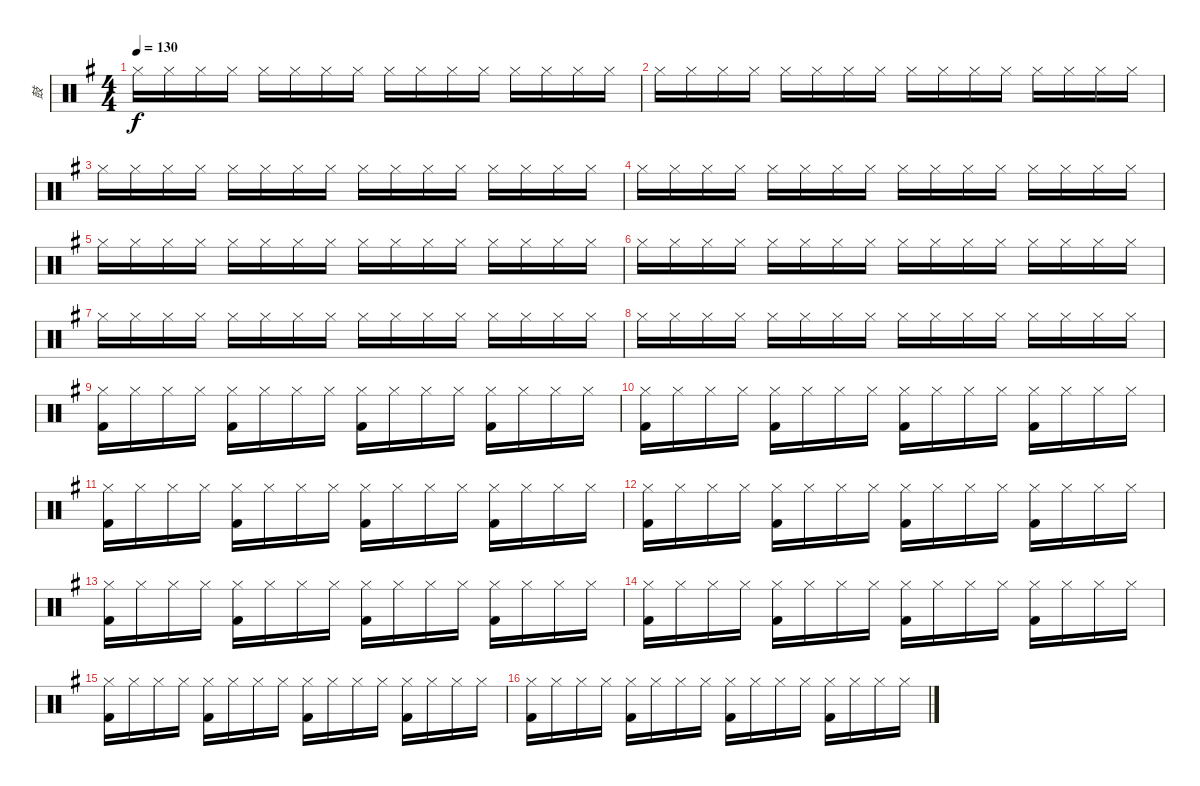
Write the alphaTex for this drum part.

\track ("鼓" "鼓") {instrument percussion}
\staff {score}
\articulation defaults
\ts (4 4)
\tempo 130
\clef neutral
\ks g "Hi-Hat (closed)".16{dy f} "Hi-Hat (closed)".16 "Hi-Hat (closed)".16 "Hi-Hat (closed)".16 "Hi-Hat (closed)".16 "Hi-Hat (closed)".16 "Hi-Hat (closed)".16 "Hi-Hat (closed)".16 "Hi-Hat (closed)".16 "Hi-Hat (closed)".16 "Hi-Hat (closed)".16 "Hi-Hat (closed)".16 "Hi-Hat (closed)".16 "Hi-Hat (closed)".16 "Hi-Hat (closed)".16 "Hi-Hat (closed)".16
|
"Hi-Hat (closed)".16 "Hi-Hat (closed)".16 "Hi-Hat (closed)".16 "Hi-Hat (closed)".16 "Hi-Hat (closed)".16 "Hi-Hat (closed)".16 "Hi-Hat (closed)".16 "Hi-Hat (closed)".16 "Hi-Hat (closed)".16 "Hi-Hat (closed)".16 "Hi-Hat (closed)".16 "Hi-Hat (closed)".16 "Hi-Hat (closed)".16 "Hi-Hat (closed)".16 "Hi-Hat (closed)".16 "Hi-Hat (closed)".16 |
"Hi-Hat (closed)".16 "Hi-Hat (closed)".16 "Hi-Hat (closed)".16 "Hi-Hat (closed)".16 "Hi-Hat (closed)".16 "Hi-Hat (closed)".16 "Hi-Hat (closed)".16 "Hi-Hat (closed)".16 "Hi-Hat (closed)".16 "Hi-Hat (closed)".16 "Hi-Hat (closed)".16 "Hi-Hat (closed)".16 "Hi-Hat (closed)".16 "Hi-Hat (closed)".16 "Hi-Hat (closed)".16 "Hi-Hat (closed)".16 |
"Hi-Hat (closed)".16 "Hi-Hat (closed)".16 "Hi-Hat (closed)".16 "Hi-Hat (closed)".16 "Hi-Hat (closed)".16 "Hi-Hat (closed)".16 "Hi-Hat (closed)".16 "Hi-Hat (closed)".16 "Hi-Hat (closed)".16 "Hi-Hat (closed)".16 "Hi-Hat (closed)".16 "Hi-Hat (closed)".16 "Hi-Hat (closed)".16 "Hi-Hat (closed)".16 "Hi-Hat (closed)".16 "Hi-Hat (closed)".16 |
"Hi-Hat (closed)".16 "Hi-Hat (closed)".16 "Hi-Hat (closed)".16 "Hi-Hat (closed)".16 "Hi-Hat (closed)".16 "Hi-Hat (closed)".16 "Hi-Hat (closed)".16 "Hi-Hat (closed)".16 "Hi-Hat (closed)".16 "Hi-Hat (closed)".16 "Hi-Hat (closed)".16 "Hi-Hat (closed)".16 "Hi-Hat (closed)".16 "Hi-Hat (closed)".16 "Hi-Hat (closed)".16 "Hi-Hat (closed)".16 |
"Hi-Hat (closed)".16 "Hi-Hat (closed)".16 "Hi-Hat (closed)".16 "Hi-Hat (closed)".16 "Hi-Hat (closed)".16 "Hi-Hat (closed)".16 "Hi-Hat (closed)".16 "Hi-Hat (closed)".16 "Hi-Hat (closed)".16 "Hi-Hat (closed)".16 "Hi-Hat (closed)".16 "Hi-Hat (closed)".16 "Hi-Hat (closed)".16 "Hi-Hat (closed)".16 "Hi-Hat (closed)".16 "Hi-Hat (closed)".16 |
"Hi-Hat (closed)".16 "Hi-Hat (closed)".16 "Hi-Hat (closed)".16 "Hi-Hat (closed)".16 "Hi-Hat (closed)".16 "Hi-Hat (closed)".16 "Hi-Hat (closed)".16 "Hi-Hat (closed)".16 "Hi-Hat (closed)".16 "Hi-Hat (closed)".16 "Hi-Hat (closed)".16 "Hi-Hat (closed)".16 "Hi-Hat (closed)".16 "Hi-Hat (closed)".16 "Hi-Hat (closed)".16 "Hi-Hat (closed)".16 |
"Hi-Hat (closed)".16 "Hi-Hat (closed)".16 "Hi-Hat (closed)".16 "Hi-Hat (closed)".16 "Hi-Hat (closed)".16 "Hi-Hat (closed)".16 "Hi-Hat (closed)".16 "Hi-Hat (closed)".16 "Hi-Hat (closed)".16 "Hi-Hat (closed)".16 "Hi-Hat (closed)".16 "Hi-Hat (closed)".16 "Hi-Hat (closed)".16 "Hi-Hat (closed)".16 "Hi-Hat (closed)".16 "Hi-Hat (closed)".16 |
("Hi-Hat (closed)" "Kick (hit) 2").16 "Hi-Hat (closed)".16 "Hi-Hat (closed)".16 "Hi-Hat (closed)".16 ("Hi-Hat (closed)" "Kick (hit) 2").16 "Hi-Hat (closed)".16 "Hi-Hat (closed)".16 "Hi-Hat (closed)".16 ("Hi-Hat (closed)" "Kick (hit) 2").16 "Hi-Hat (closed)".16 "Hi-Hat (closed)".16 "Hi-Hat (closed)".16 ("Hi-Hat (closed)" "Kick (hit) 2").16 "Hi-Hat (closed)".16 "Hi-Hat (closed)".16 "Hi-Hat (closed)".16 |
("Hi-Hat (closed)" "Kick (hit) 2").16 "Hi-Hat (closed)".16 "Hi-Hat (closed)".16 "Hi-Hat (closed)".16 ("Hi-Hat (closed)" "Kick (hit) 2").16 "Hi-Hat (closed)".16 "Hi-Hat (closed)".16 "Hi-Hat (closed)".16 ("Hi-Hat (closed)" "Kick (hit) 2").16 "Hi-Hat (closed)".16 "Hi-Hat (closed)".16 "Hi-Hat (closed)".16 ("Hi-Hat (closed)" "Kick (hit) 2").16 "Hi-Hat (closed)".16 "Hi-Hat (closed)".16 "Hi-Hat (closed)".16 |
("Hi-Hat (closed)" "Kick (hit) 2").16 "Hi-Hat (closed)".16 "Hi-Hat (closed)".16 "Hi-Hat (closed)".16 ("Hi-Hat (closed)" "Kick (hit) 2").16 "Hi-Hat (closed)".16 "Hi-Hat (closed)".16 "Hi-Hat (closed)".16 ("Hi-Hat (closed)" "Kick (hit) 2").16 "Hi-Hat (closed)".16 "Hi-Hat (closed)".16 "Hi-Hat (closed)".16 ("Hi-Hat (closed)" "Kick (hit) 2").16 "Hi-Hat (closed)".16 "Hi-Hat (closed)".16 "Hi-Hat (closed)".16 |
("Hi-Hat (closed)" "Kick (hit) 2").16 "Hi-Hat (closed)".16 "Hi-Hat (closed)".16 "Hi-Hat (closed)".16 ("Hi-Hat (closed)" "Kick (hit) 2").16 "Hi-Hat (closed)".16 "Hi-Hat (closed)".16 "Hi-Hat (closed)".16 ("Hi-Hat (closed)" "Kick (hit) 2").16 "Hi-Hat (closed)".16 "Hi-Hat (closed)".16 "Hi-Hat (closed)".16 ("Hi-Hat (closed)" "Kick (hit) 2").16 "Hi-Hat (closed)".16 "Hi-Hat (closed)".16 "Hi-Hat (closed)".16 |
("Hi-Hat (closed)" "Kick (hit) 2").16 "Hi-Hat (closed)".16 "Hi-Hat (closed)".16 "Hi-Hat (closed)".16 ("Hi-Hat (closed)" "Kick (hit) 2").16 "Hi-Hat (closed)".16 "Hi-Hat (closed)".16 "Hi-Hat (closed)".16 ("Hi-Hat (closed)" "Kick (hit) 2").16 "Hi-Hat (closed)".16 "Hi-Hat (closed)".16 "Hi-Hat (closed)".16 ("Hi-Hat (closed)" "Kick (hit) 2").16 "Hi-Hat (closed)".16 "Hi-Hat (closed)".16 "Hi-Hat (closed)".16 |
("Hi-Hat (closed)" "Kick (hit) 2").16 "Hi-Hat (closed)".16 "Hi-Hat (closed)".16 "Hi-Hat (closed)".16 ("Hi-Hat (closed)" "Kick (hit) 2").16 "Hi-Hat (closed)".16 "Hi-Hat (closed)".16 "Hi-Hat (closed)".16 ("Hi-Hat (closed)" "Kick (hit) 2").16 "Hi-Hat (closed)".16 "Hi-Hat (closed)".16 "Hi-Hat (closed)".16 ("Hi-Hat (closed)" "Kick (hit) 2").16 "Hi-Hat (closed)".16 "Hi-Hat (closed)".16 "Hi-Hat (closed)".16 |
("Hi-Hat (closed)" "Kick (hit) 2").16 "Hi-Hat (closed)".16 "Hi-Hat (closed)".16 "Hi-Hat (closed)".16 ("Hi-Hat (closed)" "Kick (hit) 2").16 "Hi-Hat (closed)".16 "Hi-Hat (closed)".16 "Hi-Hat (closed)".16 ("Hi-Hat (closed)" "Kick (hit) 2").16 "Hi-Hat (closed)".16 "Hi-Hat (closed)".16 "Hi-Hat (closed)".16 ("Hi-Hat (closed)" "Kick (hit) 2").16 "Hi-Hat (closed)".16 "Hi-Hat (closed)".16 "Hi-Hat (closed)".16 |
("Hi-Hat (closed)" "Kick (hit) 2").16 "Hi-Hat (closed)".16 "Hi-Hat (closed)".16 "Hi-Hat (closed)".16 ("Hi-Hat (closed)" "Kick (hit) 2").16 "Hi-Hat (closed)".16 "Hi-Hat (closed)".16 "Hi-Hat (closed)".16 ("Hi-Hat (closed)" "Kick (hit) 2").16 "Hi-Hat (closed)".16 "Hi-Hat (closed)".16 "Hi-Hat (closed)".16 ("Hi-Hat (closed)" "Kick (hit) 2").16 "Hi-Hat (closed)".16 "Hi-Hat (closed)".16 "Hi-Hat (closed)".16
